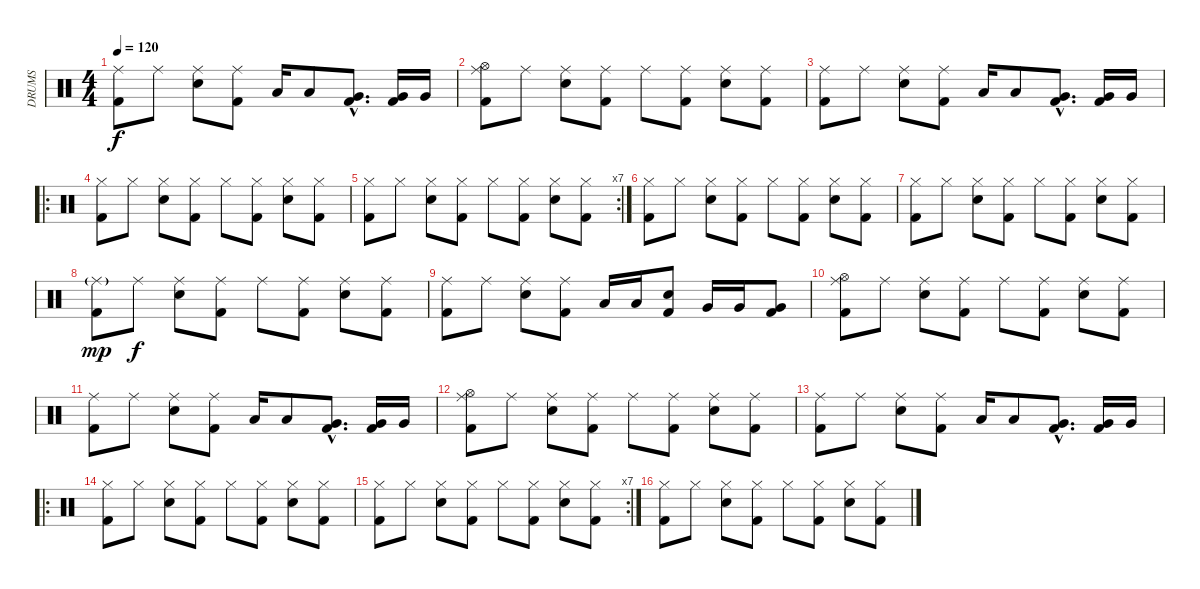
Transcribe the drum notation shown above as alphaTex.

\track ("DRUMS" "DRUMS") {instrument percussion}
\staff {score}
\articulation defaults
\ts (4 4)
\tempo 120
\clef neutral
\ks c
("Kick (hit) 2" "Ride (middle)").8{dy f} "Ride (middle)".8 ("Snare (hit) 2" "Ride (middle)").8 ("Kick (hit) 2" "Ride (middle)").8 "Low Tom (hit)".16 "Low Tom (hit)".8 ("Kick (hit) 2"{hac} "Very Low Tom (hit)"{hac}).8{d} ("Kick (hit) 2" "Very Low Tom (hit)").16 "Very Low Tom (hit)".16 |
("Kick (hit) 2" "Ride (middle)" "Hi-Hat (open)").8 "Ride (middle)".8 ("Snare (hit) 2" "Ride (middle)").8 ("Kick (hit) 2" "Ride (middle)").8 "Ride (middle)".8 ("Kick (hit) 2" "Ride (middle)").8 ("Snare (hit) 2" "Ride (middle)").8 ("Kick (hit) 2" "Ride (middle)").8 |
("Kick (hit) 2" "Ride (middle)").8 "Ride (middle)".8 ("Snare (hit) 2" "Ride (middle)").8 ("Kick (hit) 2" "Ride (middle)").8 "Low Tom (hit)".16 "Low Tom (hit)".8 ("Kick (hit) 2"{hac} "Very Low Tom (hit)"{hac}).8{d} ("Kick (hit) 2" "Very Low Tom (hit)").16 "Very Low Tom (hit)".16 |
\ro
("Kick (hit) 2" "Hi-Hat (closed)").8 "Hi-Hat (closed)".8 ("Snare (hit) 2" "Hi-Hat (closed)").8 ("Kick (hit) 2" "Hi-Hat (closed)").8 "Hi-Hat (closed)".8 ("Kick (hit) 2" "Hi-Hat (closed)").8 ("Snare (hit) 2" "Hi-Hat (closed)").8 ("Kick (hit) 2" "Hi-Hat (closed)").8 |
\rc 7
("Kick (hit) 2" "Hi-Hat (closed)").8 "Hi-Hat (closed)".8 ("Snare (hit) 2" "Hi-Hat (closed)").8 ("Kick (hit) 2" "Hi-Hat (closed)").8 "Hi-Hat (closed)".8 ("Kick (hit) 2" "Hi-Hat (closed)").8 ("Snare (hit) 2" "Hi-Hat (closed)").8 ("Kick (hit) 2" "Hi-Hat (closed)").8 |
("Kick (hit) 2" "Hi-Hat (closed)").8 "Hi-Hat (closed)".8 ("Snare (hit) 2" "Hi-Hat (closed)").8 ("Kick (hit) 2" "Hi-Hat (closed)").8 "Hi-Hat (closed)".8 ("Kick (hit) 2" "Hi-Hat (closed)").8 ("Snare (hit) 2" "Hi-Hat (closed)").8 ("Kick (hit) 2" "Hi-Hat (closed)").8 |
("Kick (hit) 2" "Hi-Hat (closed)").8 "Hi-Hat (closed)".8 ("Snare (hit) 2" "Hi-Hat (closed)").8 ("Kick (hit) 2" "Hi-Hat (closed)").8 "Hi-Hat (closed)".8 ("Kick (hit) 2" "Hi-Hat (closed)").8 ("Snare (hit) 2" "Hi-Hat (closed)").8 ("Kick (hit) 2" "Hi-Hat (closed)").8 |
("Kick (hit) 2" "Ride (middle)"{g}).8{dy mp} "Ride (middle)".8{dy f} ("Snare (hit) 2" "Ride (middle)").8 ("Kick (hit) 2" "Ride (middle)").8 "Ride (middle)".8 ("Kick (hit) 2" "Ride (middle)").8 ("Snare (hit) 2" "Ride (middle)").8 ("Kick (hit) 2" "Ride (middle)").8 |
("Kick (hit) 2" "Ride (middle)").8 "Ride (middle)".8 ("Snare (hit) 2" "Ride (middle)").8 ("Kick (hit) 2" "Ride (middle)").8 "Low Tom (hit)".16 "Low Tom (hit)".16 ("Kick (hit) 2" "Snare (hit) 2").8 "Very Low Tom (hit)".16 "Very Low Tom (hit)".16 ("Kick (hit) 2" "Very Low Tom (hit)").8 |
("Kick (hit) 2" "Ride (middle)" "Hi-Hat (open)").8 "Ride (middle)".8 ("Snare (hit) 2" "Ride (middle)").8 ("Kick (hit) 2" "Ride (middle)").8 "Ride (middle)".8 ("Kick (hit) 2" "Ride (middle)").8 ("Snare (hit) 2" "Ride (middle)").8 ("Kick (hit) 2" "Ride (middle)").8 |
("Kick (hit) 2" "Ride (middle)").8 "Ride (middle)".8 ("Snare (hit) 2" "Ride (middle)").8 ("Kick (hit) 2" "Ride (middle)").8 "Low Tom (hit)".16 "Low Tom (hit)".8 ("Kick (hit) 2"{hac} "Very Low Tom (hit)"{hac}).8{d} ("Kick (hit) 2" "Very Low Tom (hit)").16 "Very Low Tom (hit)".16 |
("Kick (hit) 2" "Ride (middle)" "Hi-Hat (open)").8 "Ride (middle)".8 ("Snare (hit) 2" "Ride (middle)").8 ("Kick (hit) 2" "Ride (middle)").8 "Ride (middle)".8 ("Kick (hit) 2" "Ride (middle)").8 ("Snare (hit) 2" "Ride (middle)").8 ("Kick (hit) 2" "Ride (middle)").8 |
("Kick (hit) 2" "Ride (middle)").8 "Ride (middle)".8 ("Snare (hit) 2" "Ride (middle)").8 ("Kick (hit) 2" "Ride (middle)").8 "Low Tom (hit)".16 "Low Tom (hit)".8 ("Kick (hit) 2"{hac} "Very Low Tom (hit)"{hac}).8{d} ("Kick (hit) 2" "Very Low Tom (hit)").16 "Very Low Tom (hit)".16 |
\ro
("Kick (hit) 2" "Hi-Hat (closed)").8 "Hi-Hat (closed)".8 ("Snare (hit) 2" "Hi-Hat (closed)").8 ("Kick (hit) 2" "Hi-Hat (closed)").8 "Hi-Hat (closed)".8 ("Kick (hit) 2" "Hi-Hat (closed)").8 ("Snare (hit) 2" "Hi-Hat (closed)").8 ("Kick (hit) 2" "Hi-Hat (closed)").8 |
\rc 7
("Kick (hit) 2" "Hi-Hat (closed)").8 "Hi-Hat (closed)".8 ("Snare (hit) 2" "Hi-Hat (closed)").8 ("Kick (hit) 2" "Hi-Hat (closed)").8 "Hi-Hat (closed)".8 ("Kick (hit) 2" "Hi-Hat (closed)").8 ("Snare (hit) 2" "Hi-Hat (closed)").8 ("Kick (hit) 2" "Hi-Hat (closed)").8 |
("Kick (hit) 2" "Hi-Hat (closed)").8 "Hi-Hat (closed)".8 ("Snare (hit) 2" "Hi-Hat (closed)").8 ("Kick (hit) 2" "Hi-Hat (closed)").8 "Hi-Hat (closed)".8 ("Kick (hit) 2" "Hi-Hat (closed)").8 ("Snare (hit) 2" "Hi-Hat (closed)").8 ("Kick (hit) 2" "Hi-Hat (closed)").8
